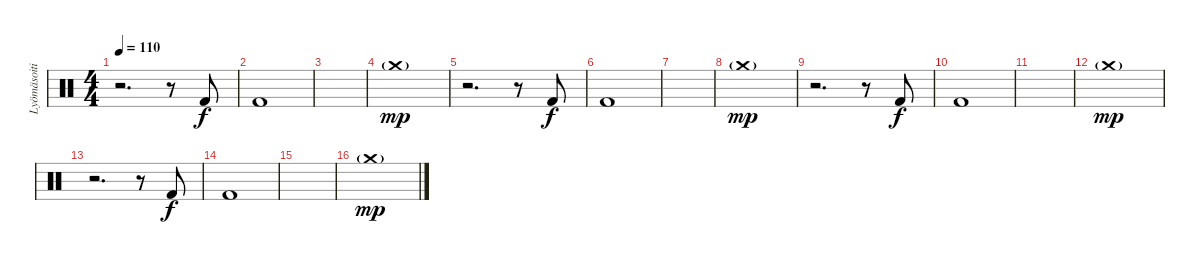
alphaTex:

\track ("Lyömäsoitin" "Lyömäsoiti") {instrument percussion}
\staff {score}
\articulation defaults
\ts (4 4)
\tempo 110
\clef neutral
\ks c
r.2{d dy mp} r.8 "Kick (hit) 2".8{dy f} |
"Kick (hit) 2".1 |
|
"Crash medium (hit)"{g}.1{dy mp} |
r.2{d} r.8 "Kick (hit) 2".8{dy f} |
"Kick (hit) 2".1{volume 8} |
|
"Crash medium (hit)"{g}.1{dy mp} |
r.2{d} r.8 "Kick (hit) 2".8{dy f} |
"Kick (hit) 2".1{volume 4} |
|
"Crash medium (hit)"{g}.1{dy mp} |
r.2{d} r.8 "Kick (hit) 2".8{dy f} |
"Kick (hit) 2".1{volume 0} |
|
"Crash medium (hit)"{g}.1{dy mp}
